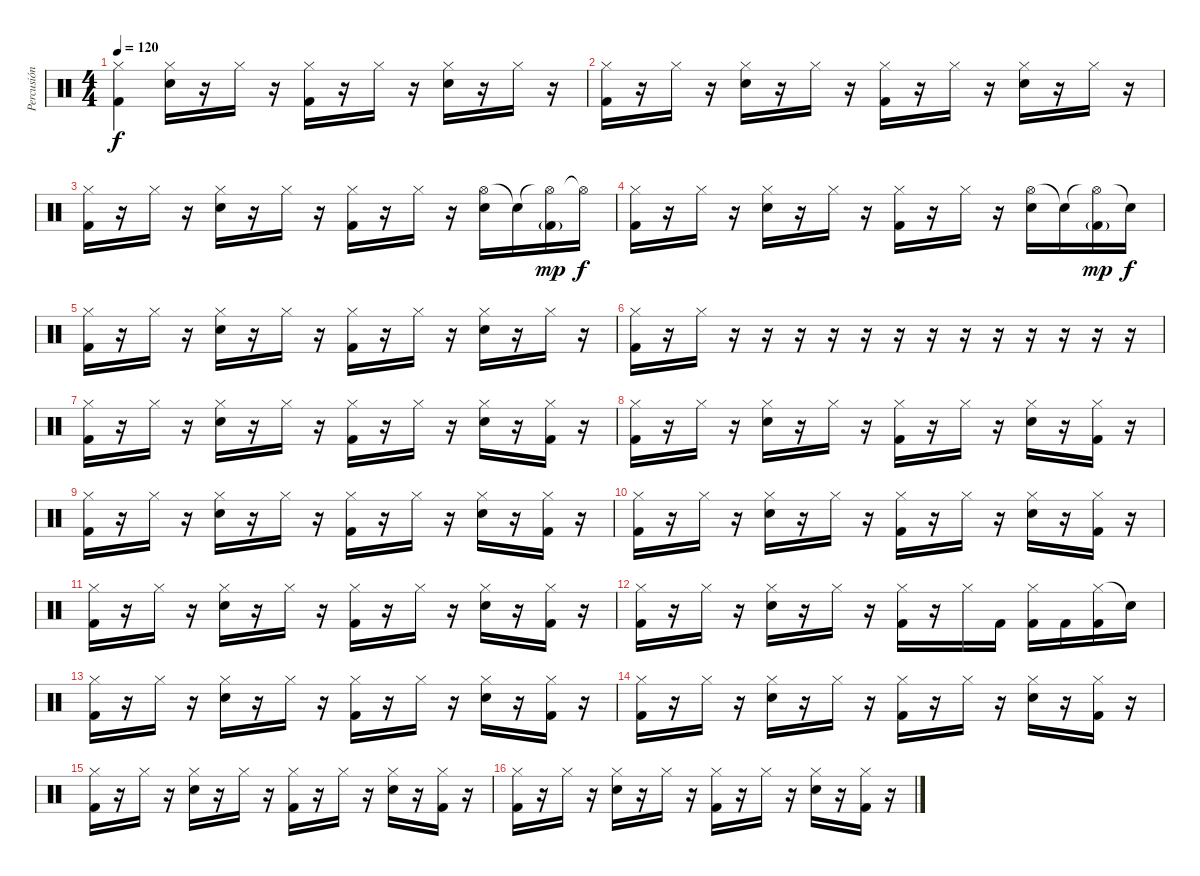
\track ("Percusión" "Percusión") {instrument percussion}
\staff {score}
\articulation defaults
\ts (4 4)
\tempo 120
\clef neutral
\ks c
("Hi-Hat (closed)" "Kick (hit) 2").4{dy f} ("Hi-Hat (closed)" "Snare (hit) 2").16 r.16 "Hi-Hat (closed)".16 r.16 ("Hi-Hat (closed)" "Kick (hit) 2").16 r.16 "Hi-Hat (closed)".16 r.16 ("Hi-Hat (closed)" "Snare (hit) 2").16 r.16 "Hi-Hat (closed)".16 r.16 |
("Hi-Hat (closed)" "Kick (hit) 2").16 r.16 "Hi-Hat (closed)".16 r.16 ("Hi-Hat (closed)" "Snare (hit) 2").16 r.16 "Hi-Hat (closed)".16 r.16 ("Hi-Hat (closed)" "Kick (hit) 2").16 r.16 "Hi-Hat (closed)".16 r.16 ("Hi-Hat (closed)" "Snare (hit) 2").16 r.16 "Hi-Hat (closed)".16 r.16 |
("Hi-Hat (closed)" "Kick (hit) 2").16 r.16 "Hi-Hat (closed)".16 r.16 ("Hi-Hat (closed)" "Snare (hit) 2").16 r.16 "Hi-Hat (closed)".16 r.16 ("Hi-Hat (closed)" "Kick (hit) 2").16 r.16 "Hi-Hat (closed)".16 r.16 ("Hi-Hat (open)" "Snare (hit) 2").16 "Snare (hit)"{t}.16 ("Hi-Hat (open)"{t} "Kick (hit) 2"{g}).16{dy mp} "Hi-Hat (open)"{t}.16{dy f} |
("Hi-Hat (closed)" "Kick (hit) 2").16 r.16 "Hi-Hat (closed)".16 r.16 ("Hi-Hat (closed)" "Snare (hit) 2").16 r.16 "Hi-Hat (closed)".16 r.16 ("Hi-Hat (closed)" "Kick (hit) 2").16 r.16 "Hi-Hat (closed)".16 r.16 ("Hi-Hat (open)" "Snare (hit) 2").16 "Snare (hit)"{t}.16 ("Hi-Hat (open)"{t} "Kick (hit) 2"{g}).16{dy mp} "Snare (hit)"{t}.16{dy f} |
("Hi-Hat (closed)" "Kick (hit) 2").16 r.16 "Hi-Hat (closed)".16 r.16 ("Hi-Hat (closed)" "Snare (hit) 2").16 r.16 "Hi-Hat (closed)".16 r.16 ("Hi-Hat (closed)" "Kick (hit) 2").16 r.16 "Hi-Hat (closed)".16 r.16 ("Hi-Hat (closed)" "Snare (hit) 2").16 r.16 "Hi-Hat (closed)".16 r.16 |
("Hi-Hat (closed)" "Kick (hit) 2").16 r.16 "Hi-Hat (closed)".16 r.16 r.16 r.16 r.16 r.16 r.16 r.16 r.16 r.16 r.16 r.16 r.16 r.16 |
("Hi-Hat (closed)" "Kick (hit) 2").16 r.16 "Hi-Hat (closed)".16 r.16 ("Hi-Hat (closed)" "Snare (hit) 2").16 r.16 "Hi-Hat (closed)".16 r.16 ("Hi-Hat (closed)" "Kick (hit) 2").16 r.16 "Hi-Hat (closed)".16 r.16 ("Hi-Hat (closed)" "Snare (hit) 2").16 r.16 ("Hi-Hat (closed)" "Kick (hit) 2").16 r.16 |
("Hi-Hat (closed)" "Kick (hit) 2").16 r.16 "Hi-Hat (closed)".16 r.16 ("Hi-Hat (closed)" "Snare (hit) 2").16 r.16 "Hi-Hat (closed)".16 r.16 ("Hi-Hat (closed)" "Kick (hit) 2").16 r.16 "Hi-Hat (closed)".16 r.16 ("Hi-Hat (closed)" "Snare (hit) 2").16 r.16 ("Hi-Hat (closed)" "Kick (hit) 2").16 r.16 |
("Hi-Hat (closed)" "Kick (hit) 2").16 r.16 "Hi-Hat (closed)".16 r.16 ("Hi-Hat (closed)" "Snare (hit) 2").16 r.16 "Hi-Hat (closed)".16 r.16 ("Hi-Hat (closed)" "Kick (hit) 2").16 r.16 "Hi-Hat (closed)".16 r.16 ("Hi-Hat (closed)" "Snare (hit) 2").16 r.16 ("Hi-Hat (closed)" "Kick (hit) 2").16 r.16 |
("Hi-Hat (closed)" "Kick (hit) 2").16 r.16 "Hi-Hat (closed)".16 r.16 ("Hi-Hat (closed)" "Snare (hit) 2").16 r.16 "Hi-Hat (closed)".16 r.16 ("Hi-Hat (closed)" "Kick (hit) 2").16 r.16 "Hi-Hat (closed)".16 r.16 ("Hi-Hat (closed)" "Snare (hit) 2").16 r.16 ("Hi-Hat (closed)" "Kick (hit) 2").16 r.16 |
("Hi-Hat (closed)" "Kick (hit) 2").16 r.16 "Hi-Hat (closed)".16 r.16 ("Hi-Hat (closed)" "Snare (hit) 2").16 r.16 "Hi-Hat (closed)".16 r.16 ("Hi-Hat (closed)" "Kick (hit) 2").16 r.16 "Hi-Hat (closed)".16 r.16 ("Hi-Hat (closed)" "Snare (hit) 2").16 r.16 ("Hi-Hat (closed)" "Kick (hit) 2").16 r.16 |
("Hi-Hat (closed)" "Kick (hit) 2").16 r.16 "Hi-Hat (closed)".16 r.16 ("Hi-Hat (closed)" "Snare (hit) 2").16 r.16 "Hi-Hat (closed)".16 r.16 ("Hi-Hat (closed)" "Kick (hit) 2").16 r.16 "Hi-Hat (closed)".16 "Kick (hit) 2".16 ("Hi-Hat (closed)" "Kick (hit) 2").16 "Kick (hit) 2".16 ("Hi-Hat (closed)" "Kick (hit) 2").16 "Snare (hit)"{t}.16 |
("Hi-Hat (closed)" "Kick (hit) 2").16 r.16 "Hi-Hat (closed)".16 r.16 ("Hi-Hat (closed)" "Snare (hit) 2").16 r.16 "Hi-Hat (closed)".16 r.16 ("Hi-Hat (closed)" "Kick (hit) 2").16 r.16 "Hi-Hat (closed)".16 r.16 ("Hi-Hat (closed)" "Snare (hit) 2").16 r.16 ("Hi-Hat (closed)" "Kick (hit) 2").16 r.16 |
("Hi-Hat (closed)" "Kick (hit) 2").16 r.16 "Hi-Hat (closed)".16 r.16 ("Hi-Hat (closed)" "Snare (hit) 2").16 r.16 "Hi-Hat (closed)".16 r.16 ("Hi-Hat (closed)" "Kick (hit) 2").16 r.16 "Hi-Hat (closed)".16 r.16 ("Hi-Hat (closed)" "Snare (hit) 2").16 r.16 ("Hi-Hat (closed)" "Kick (hit) 2").16 r.16 |
("Hi-Hat (closed)" "Kick (hit) 2").16 r.16 "Hi-Hat (closed)".16 r.16 ("Hi-Hat (closed)" "Snare (hit) 2").16 r.16 "Hi-Hat (closed)".16 r.16 ("Hi-Hat (closed)" "Kick (hit) 2").16 r.16 "Hi-Hat (closed)".16 r.16 ("Hi-Hat (closed)" "Snare (hit) 2").16 r.16 ("Hi-Hat (closed)" "Kick (hit) 2").16 r.16 |
("Hi-Hat (closed)" "Kick (hit) 2").16 r.16 "Hi-Hat (closed)".16 r.16 ("Hi-Hat (closed)" "Snare (hit) 2").16 r.16 "Hi-Hat (closed)".16 r.16 ("Hi-Hat (closed)" "Kick (hit) 2").16 r.16 "Hi-Hat (closed)".16 r.16 ("Hi-Hat (closed)" "Snare (hit) 2").16 r.16 ("Hi-Hat (closed)" "Kick (hit) 2").16 r.16
